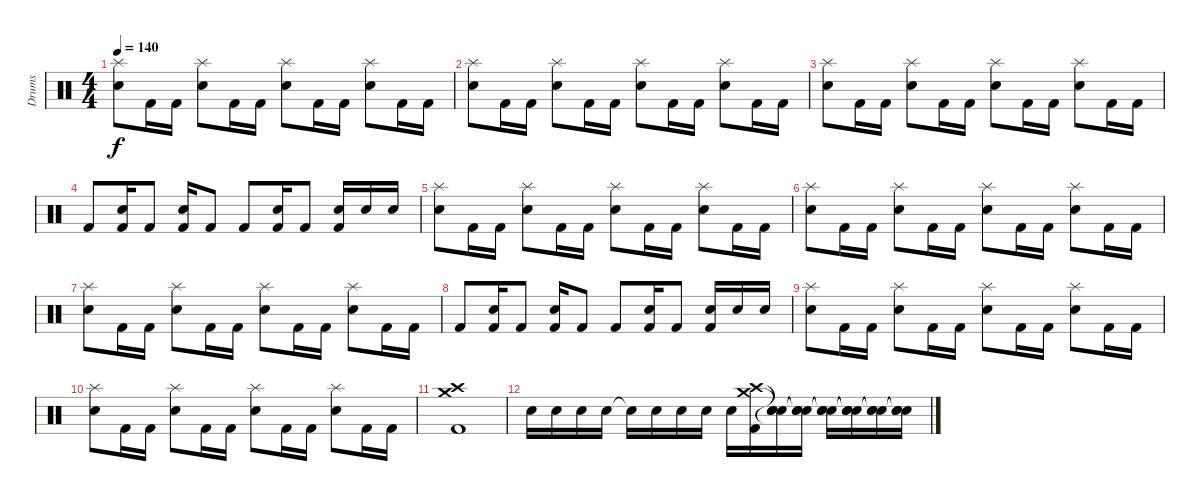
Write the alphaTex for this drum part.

\track ("Drums" "Drums") {instrument percussion}
\staff {score}
\articulation defaults
\ts (4 4)
\tempo 140
\clef neutral
\ks c
("Splash (hit)" "Snare (hit) 2").8{dy f} "Kick (hit) 2".16 "Kick (hit) 2".16 ("Splash (hit)" "Snare (hit) 2").8 "Kick (hit) 2".16 "Kick (hit) 2".16 ("Splash (hit)" "Snare (hit) 2").8 "Kick (hit) 2".16 "Kick (hit) 2".16 ("Splash (hit)" "Snare (hit) 2").8 "Kick (hit) 2".16 "Kick (hit) 2".16 |
("Splash (hit)" "Snare (hit) 2").8 "Kick (hit) 2".16 "Kick (hit) 2".16 ("Splash (hit)" "Snare (hit) 2").8 "Kick (hit) 2".16 "Kick (hit) 2".16 ("Splash (hit)" "Snare (hit) 2").8 "Kick (hit) 2".16 "Kick (hit) 2".16 ("Splash (hit)" "Snare (hit) 2").8 "Kick (hit) 2".16 "Kick (hit) 2".16 |
("Splash (hit)" "Snare (hit) 2").8 "Kick (hit) 2".16 "Kick (hit) 2".16 ("Splash (hit)" "Snare (hit) 2").8 "Kick (hit) 2".16 "Kick (hit) 2".16 ("Splash (hit)" "Snare (hit) 2").8 "Kick (hit) 2".16 "Kick (hit) 2".16 ("Splash (hit)" "Snare (hit) 2").8 "Kick (hit) 2".16 "Kick (hit) 2".16 |
"Kick (hit) 2".8 ("Snare (hit) 2" "Kick (hit) 2").16 "Kick (hit) 2".8 ("Snare (hit) 2" "Kick (hit) 2").16 "Kick (hit) 2".8 "Kick (hit) 2".8 ("Snare (hit) 2" "Kick (hit) 2").16 "Kick (hit) 2".8 ("Snare (hit) 2" "Kick (hit) 2").16 "Snare (hit) 2".16 "Snare (hit) 2".16 |
("Splash (hit)" "Snare (hit) 2").8 "Kick (hit) 2".16 "Kick (hit) 2".16 ("Splash (hit)" "Snare (hit) 2").8 "Kick (hit) 2".16 "Kick (hit) 2".16 ("Splash (hit)" "Snare (hit) 2").8 "Kick (hit) 2".16 "Kick (hit) 2".16 ("Splash (hit)" "Snare (hit) 2").8 "Kick (hit) 2".16 "Kick (hit) 2".16 |
("Splash (hit)" "Snare (hit) 2").8 "Kick (hit) 2".16 "Kick (hit) 2".16 ("Splash (hit)" "Snare (hit) 2").8 "Kick (hit) 2".16 "Kick (hit) 2".16 ("Splash (hit)" "Snare (hit) 2").8 "Kick (hit) 2".16 "Kick (hit) 2".16 ("Splash (hit)" "Snare (hit) 2").8 "Kick (hit) 2".16 "Kick (hit) 2".16 |
("Splash (hit)" "Snare (hit) 2").8 "Kick (hit) 2".16 "Kick (hit) 2".16 ("Splash (hit)" "Snare (hit) 2").8 "Kick (hit) 2".16 "Kick (hit) 2".16 ("Splash (hit)" "Snare (hit) 2").8 "Kick (hit) 2".16 "Kick (hit) 2".16 ("Splash (hit)" "Snare (hit) 2").8 "Kick (hit) 2".16 "Kick (hit) 2".16 |
"Kick (hit) 2".8 ("Snare (hit) 2" "Kick (hit) 2").16 "Kick (hit) 2".8 ("Snare (hit) 2" "Kick (hit) 2").16 "Kick (hit) 2".8 "Kick (hit) 2".8 ("Snare (hit) 2" "Kick (hit) 2").16 "Kick (hit) 2".8 ("Snare (hit) 2" "Kick (hit) 2").16 "Snare (hit) 2".16 "Snare (hit) 2".16 |
("Splash (hit)" "Snare (hit) 2").8 "Kick (hit) 2".16 "Kick (hit) 2".16 ("Splash (hit)" "Snare (hit) 2").8 "Kick (hit) 2".16 "Kick (hit) 2".16 ("Splash (hit)" "Snare (hit) 2").8 "Kick (hit) 2".16 "Kick (hit) 2".16 ("Splash (hit)" "Snare (hit) 2").8 "Kick (hit) 2".16 "Kick (hit) 2".16 |
("Splash (hit)" "Snare (hit) 2").8 "Kick (hit) 2".16 "Kick (hit) 2".16 ("Splash (hit)" "Snare (hit) 2").8 "Kick (hit) 2".16 "Kick (hit) 2".16 ("Splash (hit)" "Snare (hit) 2").8 "Kick (hit) 2".16 "Kick (hit) 2".16 ("Splash (hit)" "Snare (hit) 2").8 "Kick (hit) 2".16 "Kick (hit) 2".16 |
("Crash medium (hit)" "Crash high (hit)" "Kick (hit) 2").1 |
"Snare (hit) 2".16 "Snare (hit) 2".16 "Snare (hit) 2".16 "Snare (hit) 2".16 "Snare (hit)"{t}.16 "Snare (hit) 2".16 "Snare (hit) 2".16 "Snare (hit) 2".16 "Snare (hit) 2".16 ("Crash medium (hit)" "Crash high (hit)" "Kick (hit) 2").16 ("Snare (hit)"{t} "Snare (hit)"{t} "Snare (hit)"{t}).16 ("Snare (hit)"{t} "Snare (hit)"{t} "Snare (hit)"{t}).16 ("Snare (hit)"{t} "Snare (hit)"{t} "Snare (hit)"{t}).16 ("Snare (hit)"{t} "Snare (hit)"{t} "Snare (hit)"{t}).16 ("Snare (hit)"{t} "Snare (hit)"{t} "Snare (hit)"{t}).16 ("Snare (hit)"{t} "Snare (hit)"{t} "Snare (hit)"{t}).16
